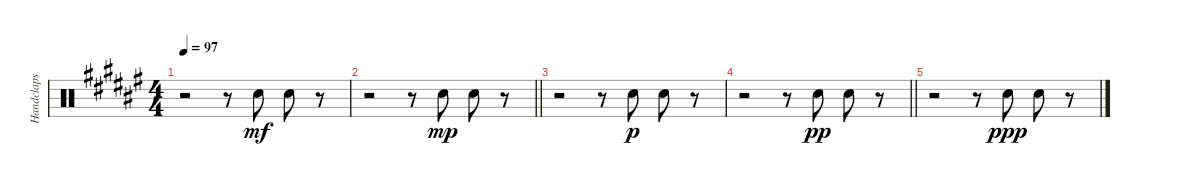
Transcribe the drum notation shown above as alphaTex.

\track ("Handclaps" "Handclaps") {instrument percussion}
\staff {score}
\articulation defaults
\ts (4 4)
\tempo 97
\clef neutral
\ks f#
r.2{dy f} r.8 "Hand Clap (hit)".8{dy mf} "Hand Clap (hit)".8 r.8 |
\barLineRight lightlight
r.2 r.8 "Hand Clap (hit)".8{dy mp} "Hand Clap (hit)".8 r.8 |
r.2 r.8 "Hand Clap (hit)".8{dy p} "Hand Clap (hit)".8 r.8 |
\barLineRight lightlight
r.2 r.8 "Hand Clap (hit)".8{dy pp} "Hand Clap (hit)".8 r.8 |
r.2 r.8 "Hand Clap (hit)".8{dy ppp} "Hand Clap (hit)".8 r.8
